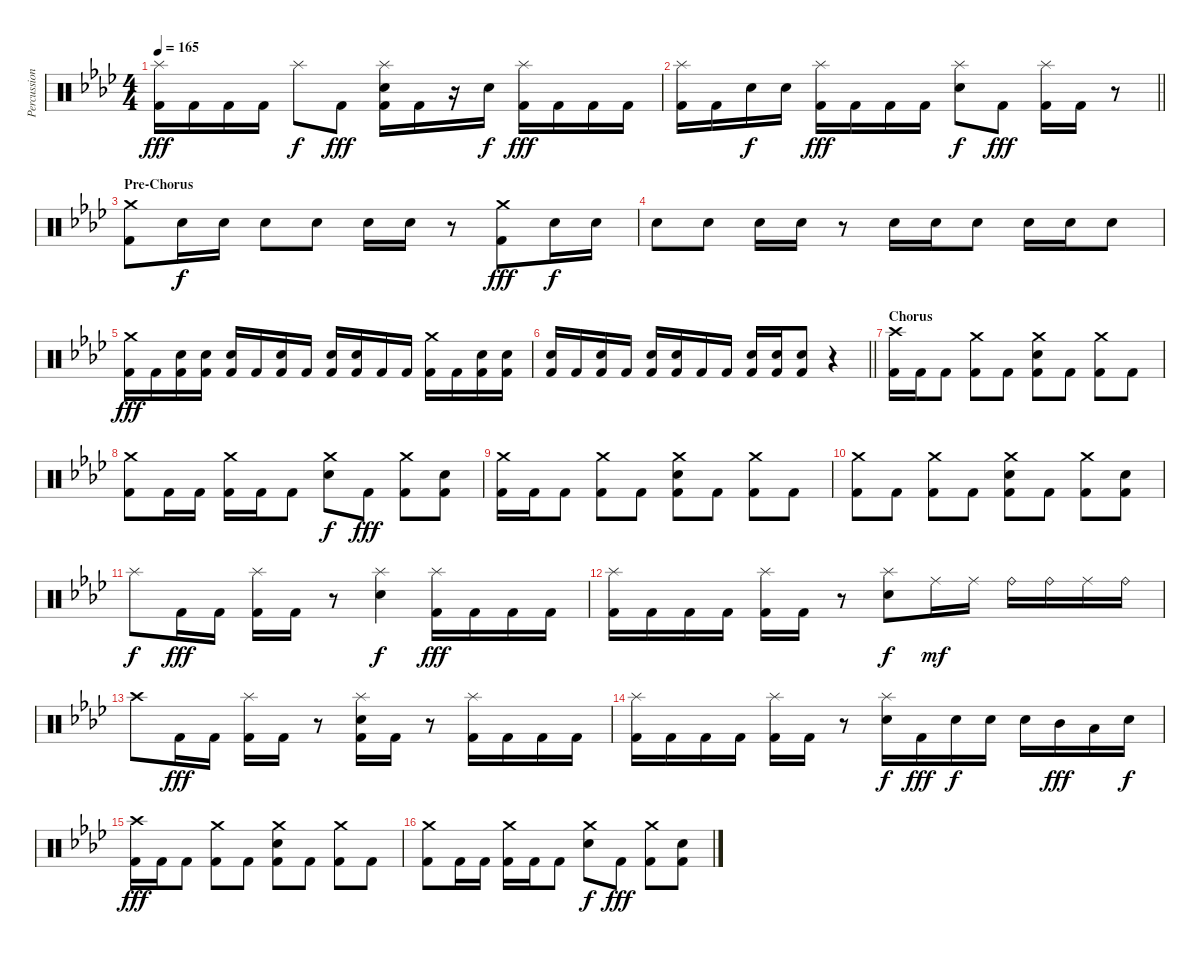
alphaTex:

\track ("Percussion" "Percussion") {instrument percussion}
\staff {score}
\articulation defaults
\ts (4 4)
\tempo 165
\clef neutral
\ks ab
("Splash (hit)" "Kick (hit) 2").16{dy fff} "Kick (hit) 2".16 "Kick (hit) 2".16 "Kick (hit) 2".16 "Splash (hit)".8{dy f} "Kick (hit) 2".8{dy fff} ("Splash (hit)" "Electric Snare (hit)" "Kick (hit) 2").16 "Kick (hit) 2".16 r.16 "Electric Snare (hit)".16{dy f} ("Splash (hit)" "Kick (hit) 2").16{dy fff} "Kick (hit) 2".16 "Kick (hit) 2".16 "Kick (hit) 2".16 |
\barLineRight lightlight
("Splash (hit)" "Kick (hit) 2").16 "Kick (hit) 2".16 "Electric Snare (hit)".16{dy f} "Electric Snare (hit)".16 ("Splash (hit)" "Kick (hit) 2").16{dy fff} "Kick (hit) 2".16 "Kick (hit) 2".16 "Kick (hit) 2".16 ("Splash (hit)" "Electric Snare (hit)").8{dy f} "Kick (hit) 2".8{dy fff} ("Splash (hit)" "Kick (hit) 2").16 "Kick (hit) 2".16 r.8 |
\section ("" "Pre-Chorus")
("Crash medium (hit)" "Kick (hit) 2").8 "Electric Snare (hit)".16{dy f} "Electric Snare (hit)".16 "Electric Snare (hit)".8 "Electric Snare (hit)".8 "Electric Snare (hit)".16 "Electric Snare (hit)".16 r.8 ("Crash medium (hit)" "Kick (hit) 2").8{dy fff} "Electric Snare (hit)".16{dy f} "Electric Snare (hit)".16 |
"Electric Snare (hit)".8 "Electric Snare (hit)".8 "Electric Snare (hit)".16 "Electric Snare (hit)".16 r.8 "Electric Snare (hit)".16 "Electric Snare (hit)".16 "Electric Snare (hit)".8 "Electric Snare (hit)".16 "Electric Snare (hit)".16 "Electric Snare (hit)".8 |
("Crash medium (hit)" "Kick (hit) 2").16{dy fff} "Kick (hit) 2".16 ("Electric Snare (hit)" "Kick (hit) 2").16 ("Electric Snare (hit)" "Kick (hit) 2").16 ("Electric Snare (hit)" "Kick (hit) 2").16 "Kick (hit) 2".16 ("Electric Snare (hit)" "Kick (hit) 2").16 "Kick (hit) 2".16 ("Electric Snare (hit)" "Kick (hit) 2").16 ("Electric Snare (hit)" "Kick (hit) 2").16 "Kick (hit) 2".16 "Kick (hit) 2".16 ("Crash medium (hit)" "Kick (hit) 2").16 "Kick (hit) 2".16 ("Electric Snare (hit)" "Kick (hit) 2").16 ("Electric Snare (hit)" "Kick (hit) 2").16 |
\barLineRight lightlight
("Electric Snare (hit)" "Kick (hit) 2").16 "Kick (hit) 2".16 ("Electric Snare (hit)" "Kick (hit) 2").16 "Kick (hit) 2".16 ("Electric Snare (hit)" "Kick (hit) 2").16 ("Electric Snare (hit)" "Kick (hit) 2").16 "Kick (hit) 2".16 "Kick (hit) 2".16 ("Electric Snare (hit)" "Kick (hit) 2").16 ("Electric Snare (hit)" "Kick (hit) 2").16 ("Electric Snare (hit)" "Kick (hit) 2").8 r.4 |
\section ("" "Chorus")
("Crash high (hit)" "Kick (hit) 2").16 "Kick (hit) 2".16 "Kick (hit) 2".8 ("Crash medium (hit)" "Kick (hit) 2").8 "Kick (hit) 2".8 ("Crash medium (hit)" "Electric Snare (hit)" "Kick (hit) 2").8 "Kick (hit) 2".8 ("Crash medium (hit)" "Kick (hit) 2").8 "Kick (hit) 2".8 |
("Crash medium (hit)" "Kick (hit) 2").8 "Kick (hit) 2".16 "Kick (hit) 2".16 ("Crash medium (hit)" "Kick (hit) 2").16 "Kick (hit) 2".16 "Kick (hit) 2".8 ("Crash medium (hit)" "Electric Snare (hit)").8{dy f} "Kick (hit) 2".8{dy fff} ("Crash medium (hit)" "Kick (hit) 2").8 ("Electric Snare (hit)" "Kick (hit) 2").8 |
("Crash medium (hit)" "Kick (hit) 2").16 "Kick (hit) 2".16 "Kick (hit) 2".8 ("Crash medium (hit)" "Kick (hit) 2").8 "Kick (hit) 2".8 ("Crash medium (hit)" "Electric Snare (hit)" "Kick (hit) 2").8 "Kick (hit) 2".8 ("Crash medium (hit)" "Kick (hit) 2").8 "Kick (hit) 2".8 |
("Crash medium (hit)" "Kick (hit) 2").8 "Kick (hit) 2".8 ("Crash medium (hit)" "Kick (hit) 2").8 "Kick (hit) 2".8 ("Crash medium (hit)" "Electric Snare (hit)" "Kick (hit) 2").8 "Kick (hit) 2".8 ("Crash medium (hit)" "Kick (hit) 2").8 ("Electric Snare (hit)" "Kick (hit) 2").8 |
"Splash (hit)".8{dy f} "Kick (hit) 2".16{dy fff} "Kick (hit) 2".16 ("Splash (hit)" "Kick (hit) 2").16 "Kick (hit) 2".16 r.8 ("Splash (hit)" "Electric Snare (hit)").4{dy f} ("Splash (hit)" "Kick (hit) 2").16{dy fff} "Kick (hit) 2".16 "Kick (hit) 2".16 "Kick (hit) 2".16 |
("Splash (hit)" "Kick (hit) 2").16 "Kick (hit) 2".16 "Kick (hit) 2".16 "Kick (hit) 2".16 ("Splash (hit)" "Kick (hit) 2").16 "Kick (hit) 2".16 r.8 ("Splash (hit)" "Electric Snare (hit)").8{dy f} "Ride (middle)".16{dy mf} "Ride (middle)".16 "Ride (bell)".16 "Ride (bell)".16 "Ride (middle)".16 "Ride (bell)".16 |
"Crash high (hit)".8 "Kick (hit) 2".16{dy fff} "Kick (hit) 2".16 ("Splash (hit)" "Kick (hit) 2").16 "Kick (hit) 2".16 r.8 ("Splash (hit)" "Electric Snare (hit)" "Kick (hit) 2").16 "Kick (hit) 2".16 r.8 ("Splash (hit)" "Kick (hit) 2").16 "Kick (hit) 2".16 "Kick (hit) 2".16 "Kick (hit) 2".16 |
("Splash (hit)" "Kick (hit) 2").16 "Kick (hit) 2".16 "Kick (hit) 2".16 "Kick (hit) 2".16 ("Splash (hit)" "Kick (hit) 2").16 "Kick (hit) 2".16 r.8 ("Splash (hit)" "Electric Snare (hit)").16{dy f} "Kick (hit) 2".16{dy fff} "Electric Snare (hit)".16{dy f} "Electric Snare (hit)".16 "Electric Snare (hit)".16 "Mid Tom (hit)".16{dy fff} "Low Tom (hit)".16 "Electric Snare (hit)".16{dy f} |
("Crash high (hit)" "Kick (hit) 2").16{dy fff} "Kick (hit) 2".16 "Kick (hit) 2".8 ("Crash medium (hit)" "Kick (hit) 2").8 "Kick (hit) 2".8 ("Crash medium (hit)" "Electric Snare (hit)" "Kick (hit) 2").8 "Kick (hit) 2".8 ("Crash medium (hit)" "Kick (hit) 2").8 "Kick (hit) 2".8 |
("Crash medium (hit)" "Kick (hit) 2").8 "Kick (hit) 2".16 "Kick (hit) 2".16 ("Crash medium (hit)" "Kick (hit) 2").16 "Kick (hit) 2".16 "Kick (hit) 2".8 ("Crash medium (hit)" "Electric Snare (hit)").8{dy f} "Kick (hit) 2".8{dy fff} ("Crash medium (hit)" "Kick (hit) 2").8 ("Electric Snare (hit)" "Kick (hit) 2").8
